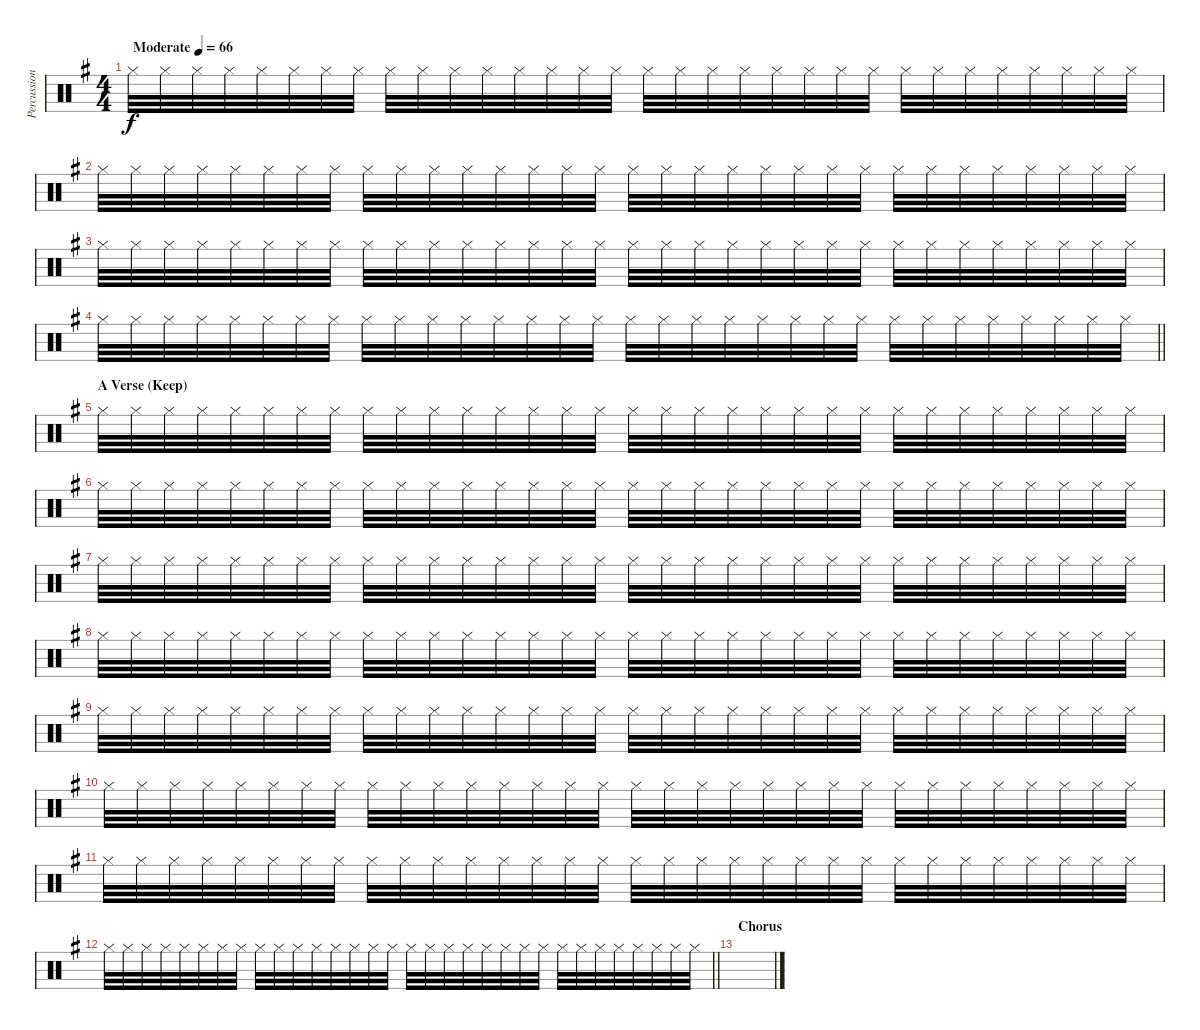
\track ("Percussions" "Percussion") {instrument percussion}
\staff {score}
\articulation defaults
\ts (4 4)
\tempo (66 "Moderate")
\clef neutral
\ks eminor "Hi-Hat (closed)".32{dy f} "Hi-Hat (closed)".32 "Hi-Hat (closed)".32 "Hi-Hat (closed)".32 "Hi-Hat (closed)".32 "Hi-Hat (closed)".32 "Hi-Hat (closed)".32 "Hi-Hat (closed)".32 "Hi-Hat (closed)".32 "Hi-Hat (closed)".32 "Hi-Hat (closed)".32 "Hi-Hat (closed)".32 "Hi-Hat (closed)".32 "Hi-Hat (closed)".32 "Hi-Hat (closed)".32 "Hi-Hat (closed)".32 "Hi-Hat (closed)".32 "Hi-Hat (closed)".32 "Hi-Hat (closed)".32 "Hi-Hat (closed)".32 "Hi-Hat (closed)".32 "Hi-Hat (closed)".32 "Hi-Hat (closed)".32 "Hi-Hat (closed)".32 "Hi-Hat (closed)".32 "Hi-Hat (closed)".32 "Hi-Hat (closed)".32 "Hi-Hat (closed)".32 "Hi-Hat (closed)".32 "Hi-Hat (closed)".32 "Hi-Hat (closed)".32 "Hi-Hat (closed)".32
|
"Hi-Hat (closed)".32 "Hi-Hat (closed)".32 "Hi-Hat (closed)".32 "Hi-Hat (closed)".32 "Hi-Hat (closed)".32 "Hi-Hat (closed)".32 "Hi-Hat (closed)".32 "Hi-Hat (closed)".32 "Hi-Hat (closed)".32 "Hi-Hat (closed)".32 "Hi-Hat (closed)".32 "Hi-Hat (closed)".32 "Hi-Hat (closed)".32 "Hi-Hat (closed)".32 "Hi-Hat (closed)".32 "Hi-Hat (closed)".32 "Hi-Hat (closed)".32 "Hi-Hat (closed)".32 "Hi-Hat (closed)".32 "Hi-Hat (closed)".32 "Hi-Hat (closed)".32 "Hi-Hat (closed)".32 "Hi-Hat (closed)".32 "Hi-Hat (closed)".32 "Hi-Hat (closed)".32 "Hi-Hat (closed)".32 "Hi-Hat (closed)".32 "Hi-Hat (closed)".32 "Hi-Hat (closed)".32 "Hi-Hat (closed)".32 "Hi-Hat (closed)".32 "Hi-Hat (closed)".32 |
"Hi-Hat (closed)".32 "Hi-Hat (closed)".32 "Hi-Hat (closed)".32 "Hi-Hat (closed)".32 "Hi-Hat (closed)".32 "Hi-Hat (closed)".32 "Hi-Hat (closed)".32 "Hi-Hat (closed)".32 "Hi-Hat (closed)".32 "Hi-Hat (closed)".32 "Hi-Hat (closed)".32 "Hi-Hat (closed)".32 "Hi-Hat (closed)".32 "Hi-Hat (closed)".32 "Hi-Hat (closed)".32 "Hi-Hat (closed)".32 "Hi-Hat (closed)".32 "Hi-Hat (closed)".32 "Hi-Hat (closed)".32 "Hi-Hat (closed)".32 "Hi-Hat (closed)".32 "Hi-Hat (closed)".32 "Hi-Hat (closed)".32 "Hi-Hat (closed)".32 "Hi-Hat (closed)".32 "Hi-Hat (closed)".32 "Hi-Hat (closed)".32 "Hi-Hat (closed)".32 "Hi-Hat (closed)".32 "Hi-Hat (closed)".32 "Hi-Hat (closed)".32 "Hi-Hat (closed)".32 |
\barLineRight lightlight "Hi-Hat (closed)".32 "Hi-Hat (closed)".32 "Hi-Hat (closed)".32 "Hi-Hat (closed)".32 "Hi-Hat (closed)".32 "Hi-Hat (closed)".32 "Hi-Hat (closed)".32 "Hi-Hat (closed)".32 "Hi-Hat (closed)".32 "Hi-Hat (closed)".32 "Hi-Hat (closed)".32 "Hi-Hat (closed)".32 "Hi-Hat (closed)".32 "Hi-Hat (closed)".32 "Hi-Hat (closed)".32 "Hi-Hat (closed)".32 "Hi-Hat (closed)".32 "Hi-Hat (closed)".32 "Hi-Hat (closed)".32 "Hi-Hat (closed)".32 "Hi-Hat (closed)".32 "Hi-Hat (closed)".32 "Hi-Hat (closed)".32 "Hi-Hat (closed)".32 "Hi-Hat (closed)".32 "Hi-Hat (closed)".32 "Hi-Hat (closed)".32 "Hi-Hat (closed)".32 "Hi-Hat (closed)".32 "Hi-Hat (closed)".32 "Hi-Hat (closed)".32 "Hi-Hat (closed)".32
|
\section ("" "A Verse (Keep)")
"Hi-Hat (closed)".32 "Hi-Hat (closed)".32 "Hi-Hat (closed)".32 "Hi-Hat (closed)".32 "Hi-Hat (closed)".32 "Hi-Hat (closed)".32 "Hi-Hat (closed)".32 "Hi-Hat (closed)".32 "Hi-Hat (closed)".32 "Hi-Hat (closed)".32 "Hi-Hat (closed)".32 "Hi-Hat (closed)".32 "Hi-Hat (closed)".32 "Hi-Hat (closed)".32 "Hi-Hat (closed)".32 "Hi-Hat (closed)".32 "Hi-Hat (closed)".32 "Hi-Hat (closed)".32 "Hi-Hat (closed)".32 "Hi-Hat (closed)".32 "Hi-Hat (closed)".32 "Hi-Hat (closed)".32 "Hi-Hat (closed)".32 "Hi-Hat (closed)".32 "Hi-Hat (closed)".32 "Hi-Hat (closed)".32 "Hi-Hat (closed)".32 "Hi-Hat (closed)".32 "Hi-Hat (closed)".32 "Hi-Hat (closed)".32 "Hi-Hat (closed)".32 "Hi-Hat (closed)".32 |
"Hi-Hat (closed)".32 "Hi-Hat (closed)".32 "Hi-Hat (closed)".32 "Hi-Hat (closed)".32 "Hi-Hat (closed)".32 "Hi-Hat (closed)".32 "Hi-Hat (closed)".32 "Hi-Hat (closed)".32 "Hi-Hat (closed)".32 "Hi-Hat (closed)".32 "Hi-Hat (closed)".32 "Hi-Hat (closed)".32 "Hi-Hat (closed)".32 "Hi-Hat (closed)".32 "Hi-Hat (closed)".32 "Hi-Hat (closed)".32 "Hi-Hat (closed)".32 "Hi-Hat (closed)".32 "Hi-Hat (closed)".32 "Hi-Hat (closed)".32 "Hi-Hat (closed)".32 "Hi-Hat (closed)".32 "Hi-Hat (closed)".32 "Hi-Hat (closed)".32 "Hi-Hat (closed)".32 "Hi-Hat (closed)".32 "Hi-Hat (closed)".32 "Hi-Hat (closed)".32 "Hi-Hat (closed)".32 "Hi-Hat (closed)".32 "Hi-Hat (closed)".32 "Hi-Hat (closed)".32 |
"Hi-Hat (closed)".32 "Hi-Hat (closed)".32 "Hi-Hat (closed)".32 "Hi-Hat (closed)".32 "Hi-Hat (closed)".32 "Hi-Hat (closed)".32 "Hi-Hat (closed)".32 "Hi-Hat (closed)".32 "Hi-Hat (closed)".32 "Hi-Hat (closed)".32 "Hi-Hat (closed)".32 "Hi-Hat (closed)".32 "Hi-Hat (closed)".32 "Hi-Hat (closed)".32 "Hi-Hat (closed)".32 "Hi-Hat (closed)".32 "Hi-Hat (closed)".32 "Hi-Hat (closed)".32 "Hi-Hat (closed)".32 "Hi-Hat (closed)".32 "Hi-Hat (closed)".32 "Hi-Hat (closed)".32 "Hi-Hat (closed)".32 "Hi-Hat (closed)".32 "Hi-Hat (closed)".32 "Hi-Hat (closed)".32 "Hi-Hat (closed)".32 "Hi-Hat (closed)".32 "Hi-Hat (closed)".32 "Hi-Hat (closed)".32 "Hi-Hat (closed)".32 "Hi-Hat (closed)".32 |
"Hi-Hat (closed)".32 "Hi-Hat (closed)".32 "Hi-Hat (closed)".32 "Hi-Hat (closed)".32 "Hi-Hat (closed)".32 "Hi-Hat (closed)".32 "Hi-Hat (closed)".32 "Hi-Hat (closed)".32 "Hi-Hat (closed)".32 "Hi-Hat (closed)".32 "Hi-Hat (closed)".32 "Hi-Hat (closed)".32 "Hi-Hat (closed)".32 "Hi-Hat (closed)".32 "Hi-Hat (closed)".32 "Hi-Hat (closed)".32 "Hi-Hat (closed)".32 "Hi-Hat (closed)".32 "Hi-Hat (closed)".32 "Hi-Hat (closed)".32 "Hi-Hat (closed)".32 "Hi-Hat (closed)".32 "Hi-Hat (closed)".32 "Hi-Hat (closed)".32 "Hi-Hat (closed)".32 "Hi-Hat (closed)".32 "Hi-Hat (closed)".32 "Hi-Hat (closed)".32 "Hi-Hat (closed)".32 "Hi-Hat (closed)".32 "Hi-Hat (closed)".32 "Hi-Hat (closed)".32 |
"Hi-Hat (closed)".32 "Hi-Hat (closed)".32 "Hi-Hat (closed)".32 "Hi-Hat (closed)".32 "Hi-Hat (closed)".32 "Hi-Hat (closed)".32 "Hi-Hat (closed)".32 "Hi-Hat (closed)".32 "Hi-Hat (closed)".32 "Hi-Hat (closed)".32 "Hi-Hat (closed)".32 "Hi-Hat (closed)".32 "Hi-Hat (closed)".32 "Hi-Hat (closed)".32 "Hi-Hat (closed)".32 "Hi-Hat (closed)".32 "Hi-Hat (closed)".32 "Hi-Hat (closed)".32 "Hi-Hat (closed)".32 "Hi-Hat (closed)".32 "Hi-Hat (closed)".32 "Hi-Hat (closed)".32 "Hi-Hat (closed)".32 "Hi-Hat (closed)".32 "Hi-Hat (closed)".32 "Hi-Hat (closed)".32 "Hi-Hat (closed)".32 "Hi-Hat (closed)".32 "Hi-Hat (closed)".32 "Hi-Hat (closed)".32 "Hi-Hat (closed)".32 "Hi-Hat (closed)".32 |
"Hi-Hat (closed)".32 "Hi-Hat (closed)".32 "Hi-Hat (closed)".32 "Hi-Hat (closed)".32 "Hi-Hat (closed)".32 "Hi-Hat (closed)".32 "Hi-Hat (closed)".32 "Hi-Hat (closed)".32 "Hi-Hat (closed)".32 "Hi-Hat (closed)".32 "Hi-Hat (closed)".32 "Hi-Hat (closed)".32 "Hi-Hat (closed)".32 "Hi-Hat (closed)".32 "Hi-Hat (closed)".32 "Hi-Hat (closed)".32 "Hi-Hat (closed)".32 "Hi-Hat (closed)".32 "Hi-Hat (closed)".32 "Hi-Hat (closed)".32 "Hi-Hat (closed)".32 "Hi-Hat (closed)".32 "Hi-Hat (closed)".32 "Hi-Hat (closed)".32 "Hi-Hat (closed)".32 "Hi-Hat (closed)".32 "Hi-Hat (closed)".32 "Hi-Hat (closed)".32 "Hi-Hat (closed)".32 "Hi-Hat (closed)".32 "Hi-Hat (closed)".32 "Hi-Hat (closed)".32 |
"Hi-Hat (closed)".32 "Hi-Hat (closed)".32 "Hi-Hat (closed)".32 "Hi-Hat (closed)".32 "Hi-Hat (closed)".32 "Hi-Hat (closed)".32 "Hi-Hat (closed)".32 "Hi-Hat (closed)".32 "Hi-Hat (closed)".32 "Hi-Hat (closed)".32 "Hi-Hat (closed)".32 "Hi-Hat (closed)".32 "Hi-Hat (closed)".32 "Hi-Hat (closed)".32 "Hi-Hat (closed)".32 "Hi-Hat (closed)".32 "Hi-Hat (closed)".32 "Hi-Hat (closed)".32 "Hi-Hat (closed)".32 "Hi-Hat (closed)".32 "Hi-Hat (closed)".32 "Hi-Hat (closed)".32 "Hi-Hat (closed)".32 "Hi-Hat (closed)".32 "Hi-Hat (closed)".32 "Hi-Hat (closed)".32 "Hi-Hat (closed)".32 "Hi-Hat (closed)".32 "Hi-Hat (closed)".32 "Hi-Hat (closed)".32 "Hi-Hat (closed)".32 "Hi-Hat (closed)".32 |
\barLineRight lightlight "Hi-Hat (closed)".32 "Hi-Hat (closed)".32 "Hi-Hat (closed)".32 "Hi-Hat (closed)".32 "Hi-Hat (closed)".32 "Hi-Hat (closed)".32 "Hi-Hat (closed)".32 "Hi-Hat (closed)".32 "Hi-Hat (closed)".32 "Hi-Hat (closed)".32 "Hi-Hat (closed)".32 "Hi-Hat (closed)".32 "Hi-Hat (closed)".32 "Hi-Hat (closed)".32 "Hi-Hat (closed)".32 "Hi-Hat (closed)".32 "Hi-Hat (closed)".32 "Hi-Hat (closed)".32 "Hi-Hat (closed)".32 "Hi-Hat (closed)".32 "Hi-Hat (closed)".32 "Hi-Hat (closed)".32 "Hi-Hat (closed)".32 "Hi-Hat (closed)".32 "Hi-Hat (closed)".32 "Hi-Hat (closed)".32 "Hi-Hat (closed)".32 "Hi-Hat (closed)".32 "Hi-Hat (closed)".32 "Hi-Hat (closed)".32 "Hi-Hat (closed)".32 "Hi-Hat (closed)".32
|
\section ("" "Chorus")
